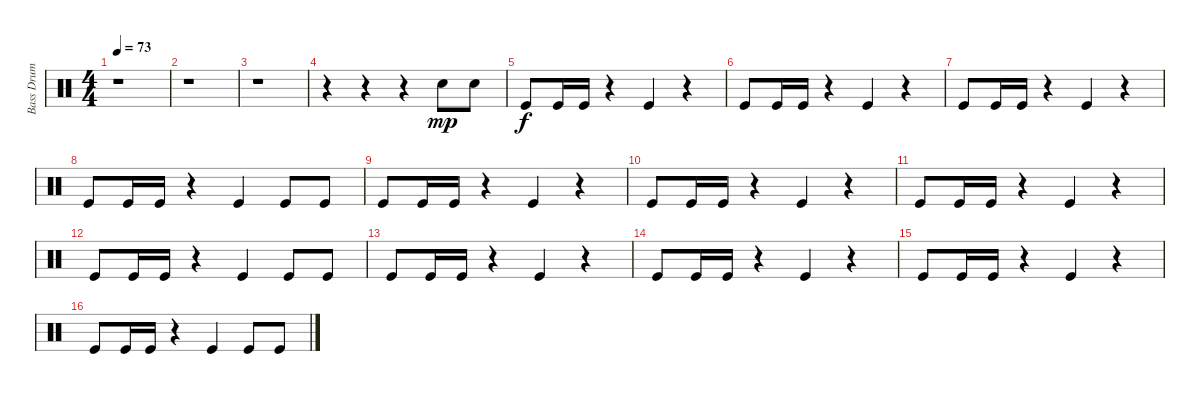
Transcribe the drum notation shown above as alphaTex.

\track ("Bass Drum" "Bass Drum") {instrument percussion}
\staff {score}
\articulation defaults
\ts (4 4)
\tempo 73
\clef neutral
\ks c
r.1{dy f} |
r.1 |
r.1 |
r.4 r.4 r.4 "Snare (hit) 2".8{dy mp} "Snare (hit) 2".8 |
"Kick (hit)".8{dy f} "Kick (hit)".16 "Kick (hit)".16 r.4 "Kick (hit)".4 r.4 |
"Kick (hit)".8 "Kick (hit)".16 "Kick (hit)".16 r.4 "Kick (hit)".4 r.4 |
"Kick (hit)".8 "Kick (hit)".16 "Kick (hit)".16 r.4 "Kick (hit)".4 r.4 |
"Kick (hit)".8 "Kick (hit)".16 "Kick (hit)".16 r.4 "Kick (hit)".4 "Kick (hit)".8 "Kick (hit)".8 |
"Kick (hit)".8 "Kick (hit)".16 "Kick (hit)".16 r.4 "Kick (hit)".4 r.4 |
"Kick (hit)".8 "Kick (hit)".16 "Kick (hit)".16 r.4 "Kick (hit)".4 r.4 |
"Kick (hit)".8 "Kick (hit)".16 "Kick (hit)".16 r.4 "Kick (hit)".4 r.4 |
"Kick (hit)".8 "Kick (hit)".16 "Kick (hit)".16 r.4 "Kick (hit)".4 "Kick (hit)".8 "Kick (hit)".8 |
"Kick (hit)".8 "Kick (hit)".16 "Kick (hit)".16 r.4 "Kick (hit)".4 r.4 |
"Kick (hit)".8 "Kick (hit)".16 "Kick (hit)".16 r.4 "Kick (hit)".4 r.4 |
"Kick (hit)".8 "Kick (hit)".16 "Kick (hit)".16 r.4 "Kick (hit)".4 r.4 |
"Kick (hit)".8 "Kick (hit)".16 "Kick (hit)".16 r.4 "Kick (hit)".4 "Kick (hit)".8 "Kick (hit)".8
